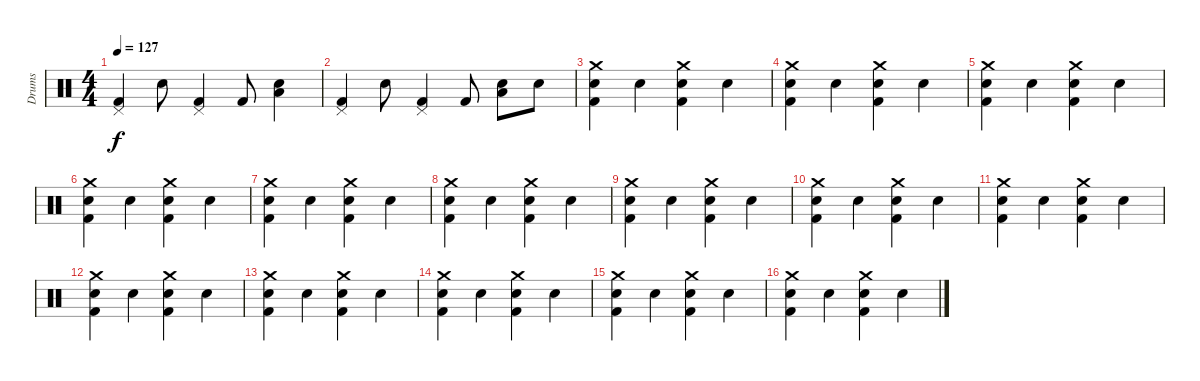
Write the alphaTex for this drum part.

\track ("Drums" "Drums") {instrument percussion}
\staff {score}
\articulation defaults
\ts (4 4)
\tempo 127
\clef neutral
\ks c
("Pedal Hi-Hat (hit)" "Kick (hit) 2").4{dy f} "Snare (hit) 2".8 ("Pedal Hi-Hat (hit)" "Kick (hit) 2").4 "Kick (hit) 2".8 ("Low Floor Tom (hit)" "Snare (hit) 2").4 |
("Pedal Hi-Hat (hit)" "Kick (hit) 2").4 "Snare (hit) 2".8 ("Pedal Hi-Hat (hit)" "Kick (hit) 2").4 "Kick (hit) 2".8 ("Low Floor Tom (hit)" "Snare (hit) 2").8 "Electric Snare (hit)".8 |
("Crash medium (hit)" "Kick (hit) 2" "Snare (hit) 2").4 "Snare (hit) 2".4 ("Crash medium (hit)" "Kick (hit) 2" "Snare (hit) 2").4 "Snare (hit) 2".4 |
("Crash medium (hit)" "Kick (hit) 2" "Snare (hit) 2").4 "Snare (hit) 2".4 ("Crash medium (hit)" "Kick (hit) 2" "Snare (hit) 2").4 "Snare (hit) 2".4 |
("Crash medium (hit)" "Kick (hit) 2" "Snare (hit) 2").4 "Snare (hit) 2".4 ("Crash medium (hit)" "Kick (hit) 2" "Snare (hit) 2").4 "Snare (hit) 2".4 |
("Crash medium (hit)" "Kick (hit) 2" "Snare (hit) 2").4 "Snare (hit) 2".4 ("Crash medium (hit)" "Kick (hit) 2" "Snare (hit) 2").4 "Snare (hit) 2".4 |
("Crash medium (hit)" "Kick (hit) 2" "Snare (hit) 2").4 "Snare (hit) 2".4 ("Crash medium (hit)" "Kick (hit) 2" "Snare (hit) 2").4 "Snare (hit) 2".4 |
("Crash medium (hit)" "Kick (hit) 2" "Snare (hit) 2").4 "Snare (hit) 2".4 ("Crash medium (hit)" "Kick (hit) 2" "Snare (hit) 2").4 "Snare (hit) 2".4 |
("Crash medium (hit)" "Kick (hit) 2" "Snare (hit) 2").4 "Snare (hit) 2".4 ("Crash medium (hit)" "Kick (hit) 2" "Snare (hit) 2").4 "Snare (hit) 2".4 |
("Crash medium (hit)" "Kick (hit) 2" "Snare (hit) 2").4 "Snare (hit) 2".4 ("Crash medium (hit)" "Kick (hit) 2" "Snare (hit) 2").4 "Snare (hit) 2".4 |
("Crash medium (hit)" "Kick (hit) 2" "Snare (hit) 2").4 "Snare (hit) 2".4 ("Crash medium (hit)" "Kick (hit) 2" "Snare (hit) 2").4 "Snare (hit) 2".4 |
("Crash medium (hit)" "Kick (hit) 2" "Snare (hit) 2").4 "Snare (hit) 2".4 ("Crash medium (hit)" "Kick (hit) 2" "Snare (hit) 2").4 "Snare (hit) 2".4 |
("Crash medium (hit)" "Kick (hit) 2" "Snare (hit) 2").4 "Snare (hit) 2".4 ("Crash medium (hit)" "Kick (hit) 2" "Snare (hit) 2").4 "Snare (hit) 2".4 |
("Crash medium (hit)" "Kick (hit) 2" "Snare (hit) 2").4 "Snare (hit) 2".4 ("Crash medium (hit)" "Kick (hit) 2" "Snare (hit) 2").4 "Snare (hit) 2".4 |
("Crash medium (hit)" "Kick (hit) 2" "Snare (hit) 2").4 "Snare (hit) 2".4 ("Crash medium (hit)" "Kick (hit) 2" "Snare (hit) 2").4 "Snare (hit) 2".4 |
("Crash medium (hit)" "Kick (hit) 2" "Snare (hit) 2").4 "Snare (hit) 2".4 ("Crash medium (hit)" "Kick (hit) 2" "Snare (hit) 2").4 "Snare (hit) 2".4
